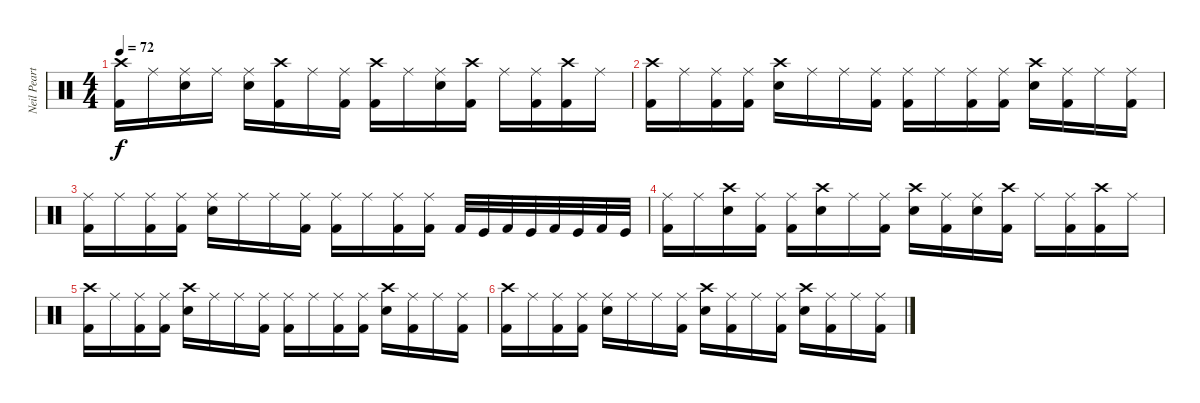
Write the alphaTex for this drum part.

\track ("Neil Peart" "Neil Peart") {instrument percussion}
\staff {score}
\articulation defaults
\ts (4 4)
\tempo 72
\clef neutral
\ks c
("Crash high (hit)" "Kick (hit) 2").16{dy f} "Ride (middle)".16 ("Electric Snare (hit)" "Ride (middle)").16 "Ride (middle)".16 ("Electric Snare (hit)" "Ride (middle)").16 ("Crash high (hit)" "Kick (hit) 2").16 "Ride (middle)".16 ("Ride (middle)" "Kick (hit) 2").16 ("Crash high (hit)" "Kick (hit) 2").16 "Ride (middle)".16 ("Electric Snare (hit)" "Ride (middle)").16 ("Crash high (hit)" "Kick (hit) 2").16 "Ride (middle)".16 ("Ride (middle)" "Kick (hit) 2").16 ("Crash high (hit)" "Kick (hit) 2").16 "Ride (middle)".16 |
("Crash high (hit)" "Kick (hit) 2").16 "Ride (middle)".16 ("Ride (middle)" "Kick (hit) 2").16 ("Ride (middle)" "Kick (hit) 2").16 ("Electric Snare (hit)" "Crash high (hit)").16 "Ride (middle)".16 "Ride (middle)".16 ("Ride (middle)" "Kick (hit) 2").16 ("Ride (middle)" "Kick (hit) 2").16 "Ride (middle)".16 ("Ride (middle)" "Kick (hit) 2").16 ("Ride (middle)" "Kick (hit) 2").16 ("Electric Snare (hit)" "Crash high (hit)").16 ("Ride (middle)" "Kick (hit) 2").16 "Ride (middle)".16 ("Ride (middle)" "Kick (hit) 2").16 |
("Ride (middle)" "Kick (hit) 2").16 "Ride (middle)".16 ("Ride (middle)" "Kick (hit) 2").16 ("Ride (middle)" "Kick (hit) 2").16 ("Electric Snare (hit)" "Ride (middle)").16 "Ride (middle)".16 "Ride (middle)".16 ("Ride (middle)" "Kick (hit) 2").16 ("Ride (middle)" "Kick (hit) 2").16 "Ride (middle)".16 ("Ride (middle)" "Kick (hit) 2").16 ("Ride (middle)" "Kick (hit) 2").16 "Kick (hit) 2".32 "Kick (hit)".32 "Kick (hit) 2".32 "Kick (hit)".32 "Kick (hit) 2".32 "Kick (hit)".32 "Kick (hit) 2".32 "Kick (hit)".32 |
("Ride (middle)" "Kick (hit) 2").16 "Ride (middle)".16 ("Electric Snare (hit)" "Crash high (hit)").16 ("Ride (middle)" "Kick (hit) 2").16 ("Ride (middle)" "Kick (hit) 2").16 ("Electric Snare (hit)" "Crash high (hit)").16 "Ride (middle)".16 ("Ride (middle)" "Kick (hit) 2").16 ("Electric Snare (hit)" "Crash high (hit)").16 ("Ride (middle)" "Kick (hit) 2").16 ("Electric Snare (hit)" "Ride (middle)").16 ("Crash high (hit)" "Kick (hit) 2").16 "Ride (middle)".16 ("Ride (middle)" "Kick (hit) 2").16 ("Crash high (hit)" "Kick (hit) 2").16 "Ride (middle)".16 |
("Crash high (hit)" "Kick (hit) 2").16 "Ride (middle)".16 ("Ride (middle)" "Kick (hit) 2").16 ("Ride (middle)" "Kick (hit) 2").16 ("Electric Snare (hit)" "Crash high (hit)").16 "Ride (middle)".16 "Ride (middle)".16 ("Ride (middle)" "Kick (hit) 2").16 ("Ride (middle)" "Kick (hit) 2").16 "Ride (middle)".16 ("Ride (middle)" "Kick (hit) 2").16 ("Ride (middle)" "Kick (hit) 2").16 ("Electric Snare (hit)" "Crash high (hit)").16 ("Ride (middle)" "Kick (hit) 2").16 "Ride (middle)".16 ("Ride (middle)" "Kick (hit) 2").16 |
("Crash high (hit)" "Kick (hit) 2").16 "Ride (middle)".16 ("Ride (middle)" "Kick (hit) 2").16 ("Ride (middle)" "Kick (hit) 2").16 ("Electric Snare (hit)" "Ride (middle)").16 "Ride (middle)".16 "Ride (middle)".16 ("Ride (middle)" "Kick (hit) 2").16 ("Electric Snare (hit)" "Crash high (hit)").16 ("Ride (middle)" "Kick (hit) 2").16 "Ride (middle)".16 ("Ride (middle)" "Kick (hit) 2").16 ("Electric Snare (hit)" "Crash high (hit)").16 ("Ride (middle)" "Kick (hit) 2").16 "Ride (middle)".16 ("Ride (middle)" "Kick (hit) 2").16
